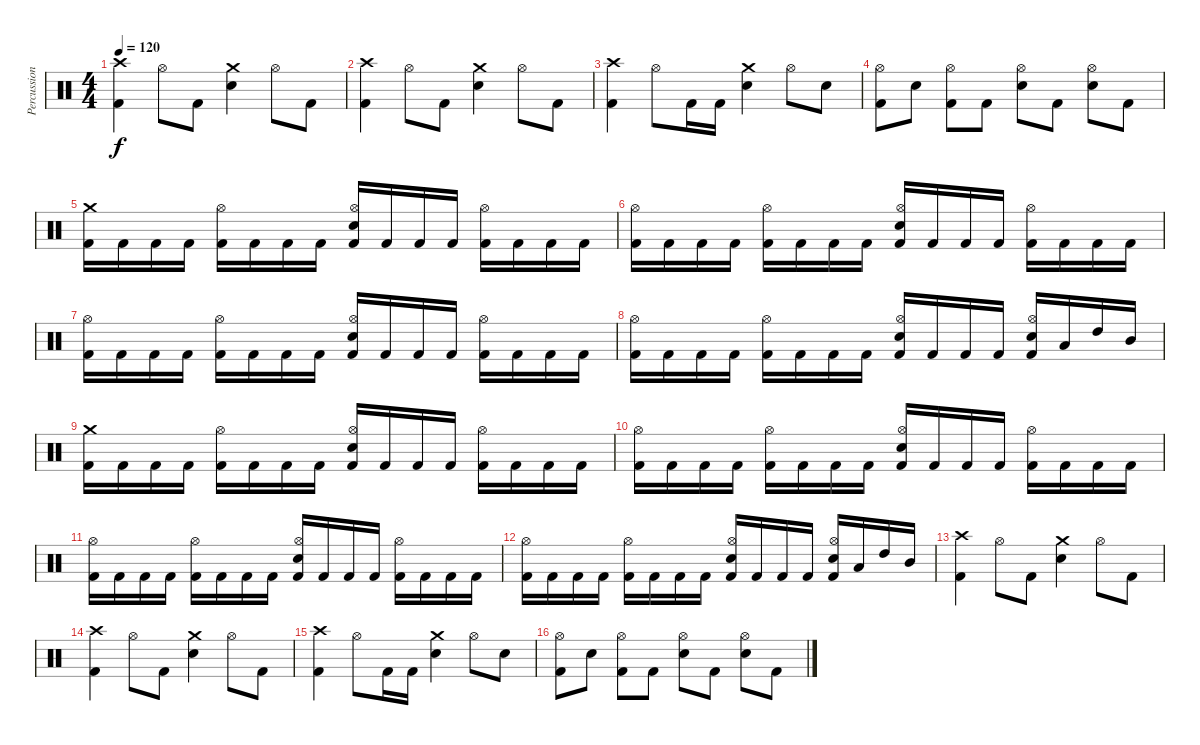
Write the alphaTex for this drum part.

\track ("Percussions" "Percussion") {instrument percussion}
\staff {score}
\articulation defaults
\ts (4 4)
\tempo 120
\clef neutral
\ks c
("Crash high (hit)" "Kick (hit) 2").4{dy f} "Hi-Hat (open)".8 "Kick (hit) 2".8 ("Crash medium (hit)" "Electric Snare (hit)").4 "Hi-Hat (open)".8 "Kick (hit) 2".8 |
("Crash high (hit)" "Kick (hit) 2").4 "Hi-Hat (open)".8 "Kick (hit) 2".8 ("Crash medium (hit)" "Electric Snare (hit)").4 "Hi-Hat (open)".8 "Kick (hit) 2".8 |
("Crash high (hit)" "Kick (hit) 2").4 "Hi-Hat (open)".8 "Kick (hit) 2".16 "Kick (hit) 2".16 ("Crash medium (hit)" "Electric Snare (hit)").4 "Hi-Hat (open)".8 "Electric Snare (hit)".8 |
("Hi-Hat (open)" "Kick (hit) 2").8 "Electric Snare (hit)".8 ("Hi-Hat (open)" "Kick (hit) 2").8 "Kick (hit) 2".8 ("Hi-Hat (open)" "Electric Snare (hit)").8 "Kick (hit) 2".8 ("Hi-Hat (open)" "Electric Snare (hit)").8 "Kick (hit) 2".8 |
("Crash medium (hit)" "Kick (hit) 2").16 "Kick (hit) 2".16 "Kick (hit) 2".16 "Kick (hit) 2".16 ("Hi-Hat (open)" "Kick (hit) 2").16 "Kick (hit) 2".16 "Kick (hit) 2".16 "Kick (hit) 2".16 ("Hi-Hat (open)" "Electric Snare (hit)" "Kick (hit) 2").16 "Kick (hit) 2".16 "Kick (hit) 2".16 "Kick (hit) 2".16 ("Hi-Hat (open)" "Kick (hit) 2").16 "Kick (hit) 2".16 "Kick (hit) 2".16 "Kick (hit) 2".16 |
("Hi-Hat (open)" "Kick (hit) 2").16 "Kick (hit) 2".16 "Kick (hit) 2".16 "Kick (hit) 2".16 ("Hi-Hat (open)" "Kick (hit) 2").16 "Kick (hit) 2".16 "Kick (hit) 2".16 "Kick (hit) 2".16 ("Hi-Hat (open)" "Electric Snare (hit)" "Kick (hit) 2").16 "Kick (hit) 2".16 "Kick (hit) 2".16 "Kick (hit) 2".16 ("Hi-Hat (open)" "Kick (hit) 2").16 "Kick (hit) 2".16 "Kick (hit) 2".16 "Kick (hit) 2".16 |
("Hi-Hat (open)" "Kick (hit) 2").16 "Kick (hit) 2".16 "Kick (hit) 2".16 "Kick (hit) 2".16 ("Hi-Hat (open)" "Kick (hit) 2").16 "Kick (hit) 2".16 "Kick (hit) 2".16 "Kick (hit) 2".16 ("Hi-Hat (open)" "Electric Snare (hit)" "Kick (hit) 2").16 "Kick (hit) 2".16 "Kick (hit) 2".16 "Kick (hit) 2".16 ("Hi-Hat (open)" "Kick (hit) 2").16 "Kick (hit) 2".16 "Kick (hit) 2".16 "Kick (hit) 2".16 |
("Hi-Hat (open)" "Kick (hit) 2").16 "Kick (hit) 2".16 "Kick (hit) 2".16 "Kick (hit) 2".16 ("Hi-Hat (open)" "Kick (hit) 2").16 "Kick (hit) 2".16 "Kick (hit) 2".16 "Kick (hit) 2".16 ("Hi-Hat (open)" "Electric Snare (hit)" "Kick (hit) 2").16 "Kick (hit) 2".16 "Kick (hit) 2".16 "Kick (hit) 2".16 ("Hi-Hat (open)" "Electric Snare (hit)" "Kick (hit) 2").16 "Low Tom (hit)".16 "High Tom (hit)".16 "Mid Tom (hit)".16 |
("Crash medium (hit)" "Kick (hit) 2").16 "Kick (hit) 2".16 "Kick (hit) 2".16 "Kick (hit) 2".16 ("Hi-Hat (open)" "Kick (hit) 2").16 "Kick (hit) 2".16 "Kick (hit) 2".16 "Kick (hit) 2".16 ("Hi-Hat (open)" "Electric Snare (hit)" "Kick (hit) 2").16 "Kick (hit) 2".16 "Kick (hit) 2".16 "Kick (hit) 2".16 ("Hi-Hat (open)" "Kick (hit) 2").16 "Kick (hit) 2".16 "Kick (hit) 2".16 "Kick (hit) 2".16 |
("Hi-Hat (open)" "Kick (hit) 2").16 "Kick (hit) 2".16 "Kick (hit) 2".16 "Kick (hit) 2".16 ("Hi-Hat (open)" "Kick (hit) 2").16 "Kick (hit) 2".16 "Kick (hit) 2".16 "Kick (hit) 2".16 ("Hi-Hat (open)" "Electric Snare (hit)" "Kick (hit) 2").16 "Kick (hit) 2".16 "Kick (hit) 2".16 "Kick (hit) 2".16 ("Hi-Hat (open)" "Kick (hit) 2").16 "Kick (hit) 2".16 "Kick (hit) 2".16 "Kick (hit) 2".16 |
("Hi-Hat (open)" "Kick (hit) 2").16 "Kick (hit) 2".16 "Kick (hit) 2".16 "Kick (hit) 2".16 ("Hi-Hat (open)" "Kick (hit) 2").16 "Kick (hit) 2".16 "Kick (hit) 2".16 "Kick (hit) 2".16 ("Hi-Hat (open)" "Electric Snare (hit)" "Kick (hit) 2").16 "Kick (hit) 2".16 "Kick (hit) 2".16 "Kick (hit) 2".16 ("Hi-Hat (open)" "Kick (hit) 2").16 "Kick (hit) 2".16 "Kick (hit) 2".16 "Kick (hit) 2".16 |
("Hi-Hat (open)" "Kick (hit) 2").16 "Kick (hit) 2".16 "Kick (hit) 2".16 "Kick (hit) 2".16 ("Hi-Hat (open)" "Kick (hit) 2").16 "Kick (hit) 2".16 "Kick (hit) 2".16 "Kick (hit) 2".16 ("Hi-Hat (open)" "Electric Snare (hit)" "Kick (hit) 2").16 "Kick (hit) 2".16 "Kick (hit) 2".16 "Kick (hit) 2".16 ("Hi-Hat (open)" "Electric Snare (hit)" "Kick (hit) 2").16 "Low Tom (hit)".16 "High Tom (hit)".16 "Mid Tom (hit)".16 |
("Crash high (hit)" "Kick (hit) 2").4 "Hi-Hat (open)".8 "Kick (hit) 2".8 ("Crash medium (hit)" "Electric Snare (hit)").4 "Hi-Hat (open)".8 "Kick (hit) 2".8 |
("Crash high (hit)" "Kick (hit) 2").4 "Hi-Hat (open)".8 "Kick (hit) 2".8 ("Crash medium (hit)" "Electric Snare (hit)").4 "Hi-Hat (open)".8 "Kick (hit) 2".8 |
("Crash high (hit)" "Kick (hit) 2").4 "Hi-Hat (open)".8 "Kick (hit) 2".16 "Kick (hit) 2".16 ("Crash medium (hit)" "Electric Snare (hit)").4 "Hi-Hat (open)".8 "Electric Snare (hit)".8 |
("Hi-Hat (open)" "Kick (hit) 2").8 "Electric Snare (hit)".8 ("Hi-Hat (open)" "Kick (hit) 2").8 "Kick (hit) 2".8 ("Hi-Hat (open)" "Electric Snare (hit)").8 "Kick (hit) 2".8 ("Hi-Hat (open)" "Electric Snare (hit)").8 "Kick (hit) 2".8
